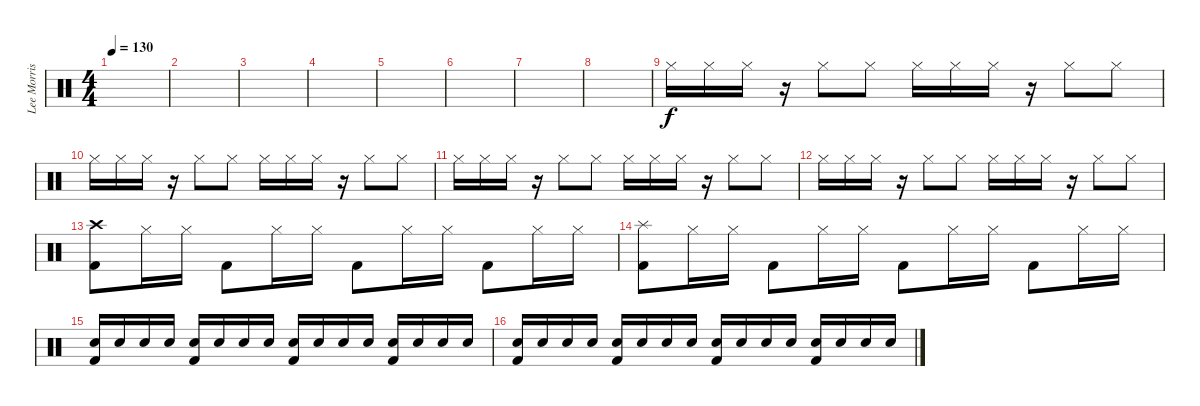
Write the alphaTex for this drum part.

\track ("Lee Morris" "Lee Morris") {instrument percussion}
\staff {score}
\articulation defaults
\ts (4 4)
\tempo 130
\clef neutral
\ks c
|
|
|
|
|
|
|
|
"Hi-Hat (closed)".16 "Hi-Hat (closed)".16 "Hi-Hat (closed)".16 r.16 "Hi-Hat (closed)".8 "Hi-Hat (closed)".8 "Hi-Hat (closed)".16 "Hi-Hat (closed)".16 "Hi-Hat (closed)".16 r.16 "Hi-Hat (closed)".8 "Hi-Hat (closed)".8 |
"Hi-Hat (closed)".16 "Hi-Hat (closed)".16 "Hi-Hat (closed)".16 r.16 "Hi-Hat (closed)".8 "Hi-Hat (closed)".8 "Hi-Hat (closed)".16 "Hi-Hat (closed)".16 "Hi-Hat (closed)".16 r.16 "Hi-Hat (closed)".8 "Hi-Hat (closed)".8 |
"Hi-Hat (closed)".16 "Hi-Hat (closed)".16 "Hi-Hat (closed)".16 r.16 "Hi-Hat (closed)".8 "Hi-Hat (closed)".8 "Hi-Hat (closed)".16 "Hi-Hat (closed)".16 "Hi-Hat (closed)".16 r.16 "Hi-Hat (closed)".8 "Hi-Hat (closed)".8 |
"Hi-Hat (closed)".16 "Hi-Hat (closed)".16 "Hi-Hat (closed)".16 r.16 "Hi-Hat (closed)".8 "Hi-Hat (closed)".8 "Hi-Hat (closed)".16 "Hi-Hat (closed)".16 "Hi-Hat (closed)".16 r.16 "Hi-Hat (closed)".8 "Hi-Hat (closed)".8 |
("Crash high (hit)" "Kick (hit) 2").8 "Hi-Hat (closed)".16 "Hi-Hat (closed)".16 "Kick (hit) 2".8 "Hi-Hat (closed)".16 "Hi-Hat (closed)".16 "Kick (hit) 2".8 "Hi-Hat (closed)".16 "Hi-Hat (closed)".16 "Kick (hit) 2".8 "Hi-Hat (closed)".16 "Hi-Hat (closed)".16 |
("Splash (hit)" "Kick (hit) 2").8 "Hi-Hat (closed)".16 "Hi-Hat (closed)".16 "Kick (hit) 2".8 "Hi-Hat (closed)".16 "Hi-Hat (closed)".16 "Kick (hit) 2".8 "Hi-Hat (closed)".16 "Hi-Hat (closed)".16 "Kick (hit) 2".8 "Hi-Hat (closed)".16 "Hi-Hat (closed)".16 |
("Kick (hit) 2" "Electric Snare (hit)").16{volume 7} "Electric Snare (hit)".16 "Electric Snare (hit)".16 "Electric Snare (hit)".16 ("Kick (hit) 2" "Electric Snare (hit)").16 "Electric Snare (hit)".16 "Electric Snare (hit)".16 "Electric Snare (hit)".16{volume 10} ("Kick (hit) 2" "Electric Snare (hit)").16 "Electric Snare (hit)".16 "Electric Snare (hit)".16 "Electric Snare (hit)".16 ("Kick (hit) 2" "Electric Snare (hit)").16 "Electric Snare (hit)".16 "Electric Snare (hit)".16 "Electric Snare (hit)".16 |
("Kick (hit) 2" "Electric Snare (hit)").16{volume 13} "Electric Snare (hit)".16 "Electric Snare (hit)".16 "Electric Snare (hit)".16 ("Kick (hit) 2" "Electric Snare (hit)").16 "Electric Snare (hit)".16 "Electric Snare (hit)".16 "Electric Snare (hit)".16 ("Kick (hit) 2" "Electric Snare (hit)").16{volume 16} "Electric Snare (hit)".16 "Electric Snare (hit)".16 "Electric Snare (hit)".16 ("Kick (hit) 2" "Electric Snare (hit)").16 "Electric Snare (hit)".16 "Electric Snare (hit)".16 "Electric Snare (hit)".16
